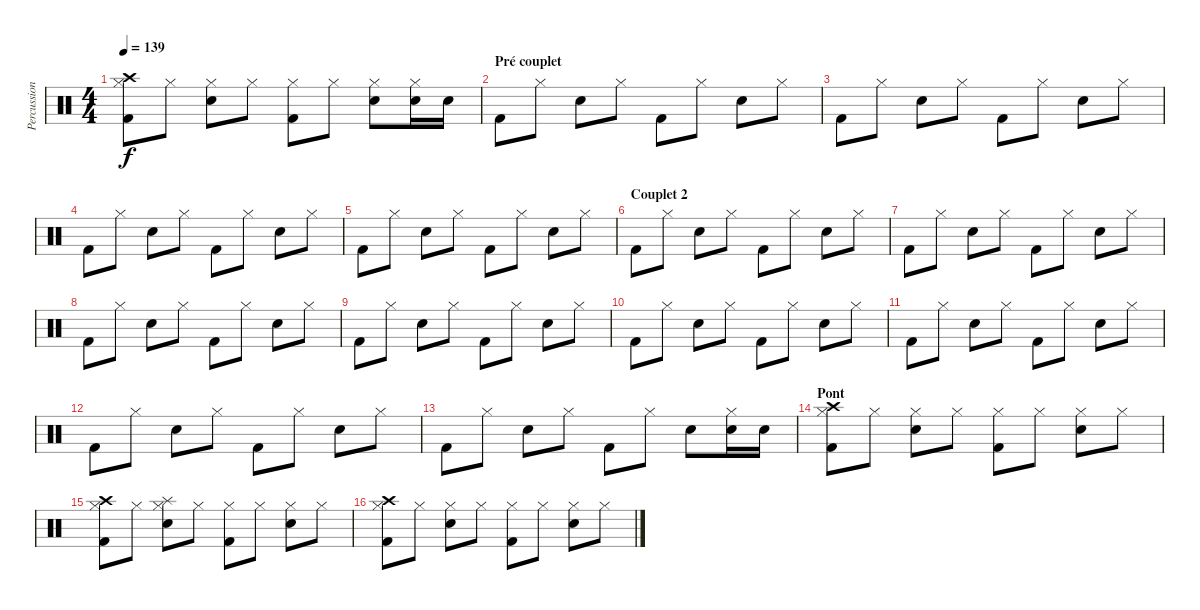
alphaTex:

\track ("Percussions" "Percussion") {instrument percussion}
\staff {score}
\articulation defaults
\ts (4 4)
\tempo 139
\clef neutral
\ks c
("Hi-Hat (closed)" "Crash high (hit)" "Kick (hit) 2").8{dy f} "Hi-Hat (closed)".8 ("Hi-Hat (closed)" "Snare (hit) 2").8 "Hi-Hat (closed)".8 ("Hi-Hat (closed)" "Kick (hit) 2").8 "Hi-Hat (closed)".8 ("Hi-Hat (closed)" "Snare (hit) 2").8 ("Hi-Hat (closed)" "Snare (hit) 2").16 "Snare (hit) 2".16 |
\section ("" "Pré couplet")
"Kick (hit) 2".8 "Hi-Hat (closed)".8 "Snare (hit) 2".8 "Hi-Hat (closed)".8 "Kick (hit) 2".8 "Hi-Hat (closed)".8 "Snare (hit) 2".8 "Hi-Hat (closed)".8 |
"Kick (hit) 2".8 "Hi-Hat (closed)".8 "Snare (hit) 2".8 "Hi-Hat (closed)".8 "Kick (hit) 2".8 "Hi-Hat (closed)".8 "Snare (hit) 2".8 "Hi-Hat (closed)".8 |
"Kick (hit) 2".8 "Hi-Hat (closed)".8 "Snare (hit) 2".8 "Hi-Hat (closed)".8 "Kick (hit) 2".8 "Hi-Hat (closed)".8 "Snare (hit) 2".8 "Hi-Hat (closed)".8 |
"Kick (hit) 2".8 "Hi-Hat (closed)".8 "Snare (hit) 2".8 "Hi-Hat (closed)".8 "Kick (hit) 2".8 "Hi-Hat (closed)".8 "Snare (hit) 2".8 "Hi-Hat (closed)".8 |
\section ("" "Couplet 2")
"Kick (hit) 2".8 "Hi-Hat (closed)".8 "Snare (hit) 2".8 "Hi-Hat (closed)".8 "Kick (hit) 2".8 "Hi-Hat (closed)".8 "Snare (hit) 2".8 "Hi-Hat (closed)".8 |
"Kick (hit) 2".8 "Hi-Hat (closed)".8 "Snare (hit) 2".8 "Hi-Hat (closed)".8 "Kick (hit) 2".8 "Hi-Hat (closed)".8 "Snare (hit) 2".8 "Hi-Hat (closed)".8 |
"Kick (hit) 2".8 "Hi-Hat (closed)".8 "Snare (hit) 2".8 "Hi-Hat (closed)".8 "Kick (hit) 2".8 "Hi-Hat (closed)".8 "Snare (hit) 2".8 "Hi-Hat (closed)".8 |
"Kick (hit) 2".8 "Hi-Hat (closed)".8 "Snare (hit) 2".8 "Hi-Hat (closed)".8 "Kick (hit) 2".8 "Hi-Hat (closed)".8 "Snare (hit) 2".8 "Hi-Hat (closed)".8 |
"Kick (hit) 2".8 "Hi-Hat (closed)".8 "Snare (hit) 2".8 "Hi-Hat (closed)".8 "Kick (hit) 2".8 "Hi-Hat (closed)".8 "Snare (hit) 2".8 "Hi-Hat (closed)".8 |
"Kick (hit) 2".8 "Hi-Hat (closed)".8 "Snare (hit) 2".8 "Hi-Hat (closed)".8 "Kick (hit) 2".8 "Hi-Hat (closed)".8 "Snare (hit) 2".8 "Hi-Hat (closed)".8 |
"Kick (hit) 2".8 "Hi-Hat (closed)".8 "Snare (hit) 2".8 "Hi-Hat (closed)".8 "Kick (hit) 2".8 "Hi-Hat (closed)".8 "Snare (hit) 2".8 "Hi-Hat (closed)".8 |
"Kick (hit) 2".8 "Hi-Hat (closed)".8 "Snare (hit) 2".8 "Hi-Hat (closed)".8 "Kick (hit) 2".8 "Hi-Hat (closed)".8 "Snare (hit) 2".8 ("Hi-Hat (closed)" "Snare (hit) 2").16 "Snare (hit) 2".16 |
\section ("" "Pont")
("Hi-Hat (closed)" "Crash high (hit)" "Kick (hit) 2").8 "Hi-Hat (closed)".8 ("Hi-Hat (closed)" "Snare (hit) 2").8 "Hi-Hat (closed)".8 ("Hi-Hat (closed)" "Kick (hit) 2").8 "Hi-Hat (closed)".8 ("Hi-Hat (closed)" "Snare (hit) 2").8 "Hi-Hat (closed)".8 |
("Hi-Hat (closed)" "Crash high (hit)" "Kick (hit) 2").8 "Hi-Hat (closed)".8 ("Hi-Hat (closed)" "Splash (hit)" "Snare (hit) 2").8 "Hi-Hat (closed)".8 ("Hi-Hat (closed)" "Kick (hit) 2").8 "Hi-Hat (closed)".8 ("Hi-Hat (closed)" "Snare (hit) 2").8 "Hi-Hat (closed)".8 |
("Hi-Hat (closed)" "Crash high (hit)" "Kick (hit) 2").8 "Hi-Hat (closed)".8 ("Hi-Hat (closed)" "Snare (hit) 2").8 "Hi-Hat (closed)".8 ("Hi-Hat (closed)" "Kick (hit) 2").8 "Hi-Hat (closed)".8 ("Hi-Hat (closed)" "Snare (hit) 2").8 "Hi-Hat (closed)".8
